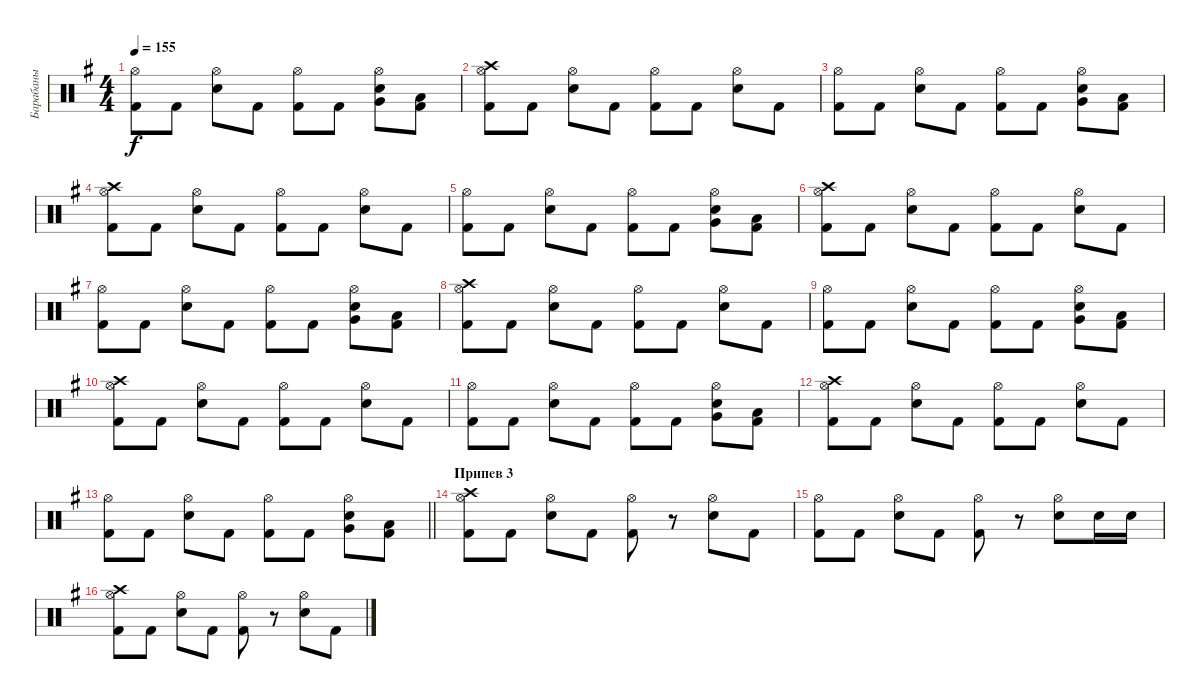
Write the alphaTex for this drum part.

\track ("Барабаны" "Барабаны") {instrument percussion}
\staff {score}
\articulation defaults
\ts (4 4)
\tempo 155
\clef neutral
\ks eminor
("Kick (hit) 2" "Hi-Hat (open)").8{dy f} "Kick (hit) 2".8 ("Electric Snare (hit)" "Hi-Hat (open)").8 "Kick (hit) 2".8 ("Kick (hit) 2" "Hi-Hat (open)").8 "Kick (hit) 2".8 ("Electric Snare (hit)" "Hi-Hat (open)" "Very Low Tom (hit)").8 ("Kick (hit) 2" "Low Floor Tom (hit)").8 |
("Kick (hit) 2" "Hi-Hat (open)" "Crash high (hit)").8 "Kick (hit) 2".8 ("Electric Snare (hit)" "Hi-Hat (open)").8 "Kick (hit) 2".8 ("Kick (hit) 2" "Hi-Hat (open)").8 "Kick (hit) 2".8 ("Electric Snare (hit)" "Hi-Hat (open)").8 "Kick (hit) 2".8 |
("Kick (hit) 2" "Hi-Hat (open)").8 "Kick (hit) 2".8 ("Electric Snare (hit)" "Hi-Hat (open)").8 "Kick (hit) 2".8 ("Kick (hit) 2" "Hi-Hat (open)").8 "Kick (hit) 2".8 ("Electric Snare (hit)" "Hi-Hat (open)" "Very Low Tom (hit)").8 ("Kick (hit) 2" "Low Floor Tom (hit)").8 |
("Kick (hit) 2" "Hi-Hat (open)" "Crash high (hit)").8 "Kick (hit) 2".8 ("Electric Snare (hit)" "Hi-Hat (open)").8 "Kick (hit) 2".8 ("Kick (hit) 2" "Hi-Hat (open)").8 "Kick (hit) 2".8 ("Electric Snare (hit)" "Hi-Hat (open)").8 "Kick (hit) 2".8 |
("Kick (hit) 2" "Hi-Hat (open)").8 "Kick (hit) 2".8 ("Electric Snare (hit)" "Hi-Hat (open)").8 "Kick (hit) 2".8 ("Kick (hit) 2" "Hi-Hat (open)").8 "Kick (hit) 2".8 ("Electric Snare (hit)" "Hi-Hat (open)" "Very Low Tom (hit)").8 ("Kick (hit) 2" "Low Floor Tom (hit)").8 |
("Kick (hit) 2" "Hi-Hat (open)" "Crash high (hit)").8 "Kick (hit) 2".8 ("Electric Snare (hit)" "Hi-Hat (open)").8 "Kick (hit) 2".8 ("Kick (hit) 2" "Hi-Hat (open)").8 "Kick (hit) 2".8 ("Electric Snare (hit)" "Hi-Hat (open)").8 "Kick (hit) 2".8 |
("Kick (hit) 2" "Hi-Hat (open)").8 "Kick (hit) 2".8 ("Electric Snare (hit)" "Hi-Hat (open)").8 "Kick (hit) 2".8 ("Kick (hit) 2" "Hi-Hat (open)").8 "Kick (hit) 2".8 ("Electric Snare (hit)" "Hi-Hat (open)" "Very Low Tom (hit)").8 ("Kick (hit) 2" "Low Floor Tom (hit)").8 |
("Kick (hit) 2" "Hi-Hat (open)" "Crash high (hit)").8 "Kick (hit) 2".8 ("Electric Snare (hit)" "Hi-Hat (open)").8 "Kick (hit) 2".8 ("Kick (hit) 2" "Hi-Hat (open)").8 "Kick (hit) 2".8 ("Electric Snare (hit)" "Hi-Hat (open)").8 "Kick (hit) 2".8 |
("Kick (hit) 2" "Hi-Hat (open)").8 "Kick (hit) 2".8 ("Electric Snare (hit)" "Hi-Hat (open)").8 "Kick (hit) 2".8 ("Kick (hit) 2" "Hi-Hat (open)").8 "Kick (hit) 2".8 ("Electric Snare (hit)" "Hi-Hat (open)" "Very Low Tom (hit)").8 ("Kick (hit) 2" "Low Floor Tom (hit)").8 |
("Kick (hit) 2" "Hi-Hat (open)" "Crash high (hit)").8 "Kick (hit) 2".8 ("Electric Snare (hit)" "Hi-Hat (open)").8 "Kick (hit) 2".8 ("Kick (hit) 2" "Hi-Hat (open)").8 "Kick (hit) 2".8 ("Electric Snare (hit)" "Hi-Hat (open)").8 "Kick (hit) 2".8 |
("Kick (hit) 2" "Hi-Hat (open)").8 "Kick (hit) 2".8 ("Electric Snare (hit)" "Hi-Hat (open)").8 "Kick (hit) 2".8 ("Kick (hit) 2" "Hi-Hat (open)").8 "Kick (hit) 2".8 ("Electric Snare (hit)" "Hi-Hat (open)" "Very Low Tom (hit)").8 ("Kick (hit) 2" "Low Floor Tom (hit)").8 |
("Kick (hit) 2" "Hi-Hat (open)" "Crash high (hit)").8 "Kick (hit) 2".8 ("Electric Snare (hit)" "Hi-Hat (open)").8 "Kick (hit) 2".8 ("Kick (hit) 2" "Hi-Hat (open)").8 "Kick (hit) 2".8 ("Electric Snare (hit)" "Hi-Hat (open)").8 "Kick (hit) 2".8 |
\barLineRight lightlight
("Kick (hit) 2" "Hi-Hat (open)").8 "Kick (hit) 2".8 ("Electric Snare (hit)" "Hi-Hat (open)").8 "Kick (hit) 2".8 ("Kick (hit) 2" "Hi-Hat (open)").8 "Kick (hit) 2".8 ("Electric Snare (hit)" "Hi-Hat (open)" "Very Low Tom (hit)").8 ("Kick (hit) 2" "Low Floor Tom (hit)").8 |
\section ("" "Припев 3")
("Kick (hit) 2" "Hi-Hat (open)" "Crash high (hit)").8 "Kick (hit) 2".8 ("Electric Snare (hit)" "Hi-Hat (open)").8 "Kick (hit) 2".8 ("Kick (hit) 2" "Hi-Hat (open)").8 r.8 ("Electric Snare (hit)" "Hi-Hat (open)").8 "Kick (hit) 2".8 |
("Kick (hit) 2" "Hi-Hat (open)").8 "Kick (hit) 2".8 ("Electric Snare (hit)" "Hi-Hat (open)").8 "Kick (hit) 2".8 ("Kick (hit) 2" "Hi-Hat (open)").8 r.8 ("Electric Snare (hit)" "Hi-Hat (open)").8 "Electric Snare (hit)".16 "Electric Snare (hit)".16 |
("Kick (hit) 2" "Hi-Hat (open)" "Crash high (hit)").8 "Kick (hit) 2".8 ("Electric Snare (hit)" "Hi-Hat (open)").8 "Kick (hit) 2".8 ("Kick (hit) 2" "Hi-Hat (open)").8 r.8 ("Electric Snare (hit)" "Hi-Hat (open)").8 "Kick (hit) 2".8
